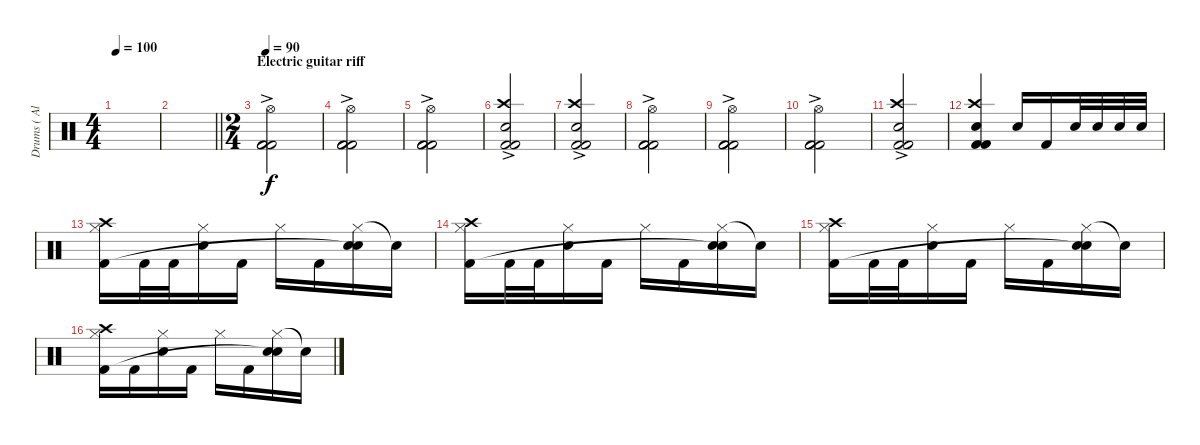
\track ("Drums ( Alex Holzwarth)" "Drums ( Al") {instrument percussion}
\staff {score}
\articulation defaults
\ts (4 4)
\tempo 100
\clef neutral
\ks c
|
\barLineRight lightlight
|
\ts (2 4)
\section ("" "Electric guitar riff")
\tempo 90
("Hi-Hat (open)"{ac} "Kick (hit) 2"{ac} "Kick (hit) 2"{ac} "Kick (hit) 2"{ac}).2 |
("Hi-Hat (open)"{ac} "Kick (hit) 2" "Kick (hit) 2" "Kick (hit) 2").2 |
("Hi-Hat (open)"{ac} "Kick (hit) 2" "Kick (hit) 2" "Kick (hit) 2").2 |
("Crash high (hit)"{ac} "Snare (hit) 2" "Kick (hit) 2" "Kick (hit) 2").2 |
("Crash high (hit)"{ac} "Snare (hit) 2" "Kick (hit) 2" "Kick (hit) 2").2 |
("Hi-Hat (open)"{ac} "Kick (hit) 2" "Kick (hit) 2" "Kick (hit) 2").2 |
("Hi-Hat (open)"{ac} "Kick (hit) 2" "Kick (hit) 2" "Kick (hit) 2"{ac}).2 |
("Hi-Hat (open)"{ac} "Kick (hit) 2" "Kick (hit) 2" "Kick (hit) 2"{ac}).2 |
("Crash high (hit)"{ac} "Snare (hit) 2" "Kick (hit) 2" "Kick (hit) 2"{ac}).2 |
("Crash high (hit)" "Snare (hit) 2" "Kick (hit) 2" "Kick (hit) 2").4{dy f} "Electric Snare (hit)".16 "Kick (hit) 2".16 "Electric Snare (hit)".32 "Electric Snare (hit)".32 "Electric Snare (hit)".32 "Electric Snare (hit)".32 |
("Crash high (hit)" "Hi-Hat (closed)" "Kick (hit) 2").16 "Kick (hit) 2".32 "Kick (hit) 2".32 ("Hi-Hat (closed)" "Electric Snare (hit)").16 "Kick (hit) 2".16 "Hi-Hat (closed)".16 "Kick (hit) 2".16 ("Hi-Hat (closed)" "Electric Snare (hit)" "Snare (hit)"{t}).16 "Snare (hit)"{t}.16 |
("Crash high (hit)" "Hi-Hat (closed)" "Kick (hit) 2").16 "Kick (hit) 2".32 "Kick (hit) 2".32 ("Hi-Hat (closed)" "Electric Snare (hit)").16 "Kick (hit) 2".16 "Hi-Hat (closed)".16 "Kick (hit) 2".16 ("Hi-Hat (closed)" "Electric Snare (hit)" "Snare (hit)"{t}).16 "Snare (hit)"{t}.16 |
("Crash high (hit)" "Hi-Hat (closed)" "Kick (hit) 2").16 "Kick (hit) 2".32 "Kick (hit) 2".32 ("Hi-Hat (closed)" "Electric Snare (hit)").16 "Kick (hit) 2".16 "Hi-Hat (closed)".16 "Kick (hit) 2".16 ("Hi-Hat (closed)" "Electric Snare (hit)" "Snare (hit)"{t}).16 "Snare (hit)"{t}.16 |
("Crash high (hit)" "Hi-Hat (closed)" "Kick (hit) 2").16 "Kick (hit) 2".16 ("Hi-Hat (closed)" "Electric Snare (hit)").16 "Kick (hit) 2".16 "Hi-Hat (closed)".16 "Kick (hit) 2".16 ("Hi-Hat (closed)" "Electric Snare (hit)" "Snare (hit)"{t}).16 "Snare (hit)"{t}.16
